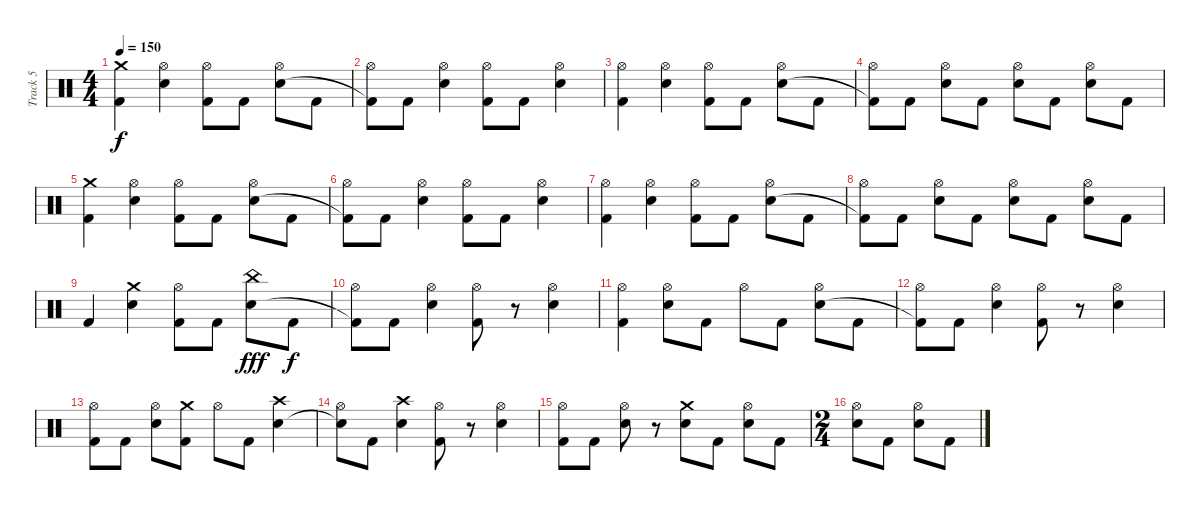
\track ("Track 5" "Track 5") {instrument percussion}
\staff {score}
\articulation defaults
\ts (4 4)
\tempo 150
\clef neutral
\ks c
("Crash medium (hit)" "Kick (hit) 2").4{dy f} ("Hi-Hat (open)" "Electric Snare (hit)").4 ("Hi-Hat (open)" "Kick (hit) 2").8 "Kick (hit) 2".8 ("Hi-Hat (open)" "Electric Snare (hit)").8 "Kick (hit) 2".8 |
("Hi-Hat (open)" "Kick (hit) 2"{t}).8 "Kick (hit) 2".8 ("Hi-Hat (open)" "Electric Snare (hit)").4 ("Hi-Hat (open)" "Kick (hit) 2").8 "Kick (hit) 2".8 ("Hi-Hat (open)" "Electric Snare (hit)").4 |
("Hi-Hat (open)" "Kick (hit) 2").4 ("Hi-Hat (open)" "Electric Snare (hit)").4 ("Hi-Hat (open)" "Kick (hit) 2").8 "Kick (hit) 2".8 ("Hi-Hat (open)" "Electric Snare (hit)").8 "Kick (hit) 2".8 |
("Hi-Hat (open)" "Kick (hit) 2"{t}).8 "Kick (hit) 2".8 ("Hi-Hat (open)" "Electric Snare (hit)").8 "Kick (hit) 2".8 ("Hi-Hat (open)" "Electric Snare (hit)").8 "Kick (hit) 2".8 ("Hi-Hat (open)" "Electric Snare (hit)").8 "Kick (hit) 2".8 |
("Crash medium (hit)" "Kick (hit) 2").4 ("Hi-Hat (open)" "Electric Snare (hit)").4 ("Hi-Hat (open)" "Kick (hit) 2").8 "Kick (hit) 2".8 ("Hi-Hat (open)" "Electric Snare (hit)").8 "Kick (hit) 2".8 |
("Hi-Hat (open)" "Kick (hit) 2"{t}).8 "Kick (hit) 2".8 ("Hi-Hat (open)" "Electric Snare (hit)").4 ("Hi-Hat (open)" "Kick (hit) 2").8 "Kick (hit) 2".8 ("Hi-Hat (open)" "Electric Snare (hit)").4 |
("Hi-Hat (open)" "Kick (hit) 2").4 ("Hi-Hat (open)" "Electric Snare (hit)").4 ("Hi-Hat (open)" "Kick (hit) 2").8 "Kick (hit) 2".8 ("Hi-Hat (open)" "Electric Snare (hit)").8 "Kick (hit) 2".8 |
("Hi-Hat (open)" "Kick (hit) 2"{t}).8 "Kick (hit) 2".8 ("Hi-Hat (open)" "Electric Snare (hit)").8 "Kick (hit) 2".8 ("Hi-Hat (open)" "Electric Snare (hit)").8 "Kick (hit) 2".8 ("Hi-Hat (open)" "Electric Snare (hit)").8 "Kick (hit) 2".8 |
"Kick (hit) 2".4 ("Crash medium (hit)" "Electric Snare (hit)").4 ("Hi-Hat (open)" "Kick (hit) 2").8 "Kick (hit) 2".8 ("China (hit)" "Electric Snare (hit)").8{dy fff} "Kick (hit) 2".8{dy f} |
("Hi-Hat (open)" "Kick (hit) 2"{t}).8 "Kick (hit) 2".8 ("Hi-Hat (open)" "Electric Snare (hit)").4 ("Hi-Hat (open)" "Kick (hit) 2").8 r.8 ("Hi-Hat (open)" "Electric Snare (hit)").4 |
("Hi-Hat (open)" "Kick (hit) 2").4 ("Hi-Hat (open)" "Electric Snare (hit)").8 "Kick (hit) 2".8 "Hi-Hat (open)".8 "Kick (hit) 2".8 ("Hi-Hat (open)" "Electric Snare (hit)").8 "Kick (hit) 2".8 |
("Hi-Hat (open)" "Kick (hit) 2"{t}).8 "Kick (hit) 2".8 ("Hi-Hat (open)" "Electric Snare (hit)").4 ("Hi-Hat (open)" "Kick (hit) 2").8 r.8 ("Hi-Hat (open)" "Electric Snare (hit)").4 |
("Hi-Hat (open)" "Kick (hit) 2").8 "Kick (hit) 2".8 ("Hi-Hat (open)" "Electric Snare (hit)").8 ("Crash medium (hit)" "Kick (hit) 2").8 "Hi-Hat (open)".8 "Kick (hit) 2".8 ("Crash high (hit)" "Electric Snare (hit)").4 |
("Hi-Hat (open)" "Snare (hit)"{t}).8 "Kick (hit) 2".8 ("Crash high (hit)" "Electric Snare (hit)").4 ("Hi-Hat (open)" "Kick (hit) 2").8 r.8 ("Hi-Hat (open)" "Electric Snare (hit)").4 |
("Hi-Hat (open)" "Kick (hit) 2").8 "Kick (hit) 2".8 ("Hi-Hat (open)" "Electric Snare (hit)").8 r.8 ("Crash medium (hit)" "Electric Snare (hit)").8 "Kick (hit) 2".8 ("Hi-Hat (open)" "Electric Snare (hit)").8 "Kick (hit) 2".8 |
\ts (2 4)
("Hi-Hat (open)" "Electric Snare (hit)").8 "Kick (hit) 2".8 ("Hi-Hat (open)" "Electric Snare (hit)").8 "Kick (hit) 2".8
